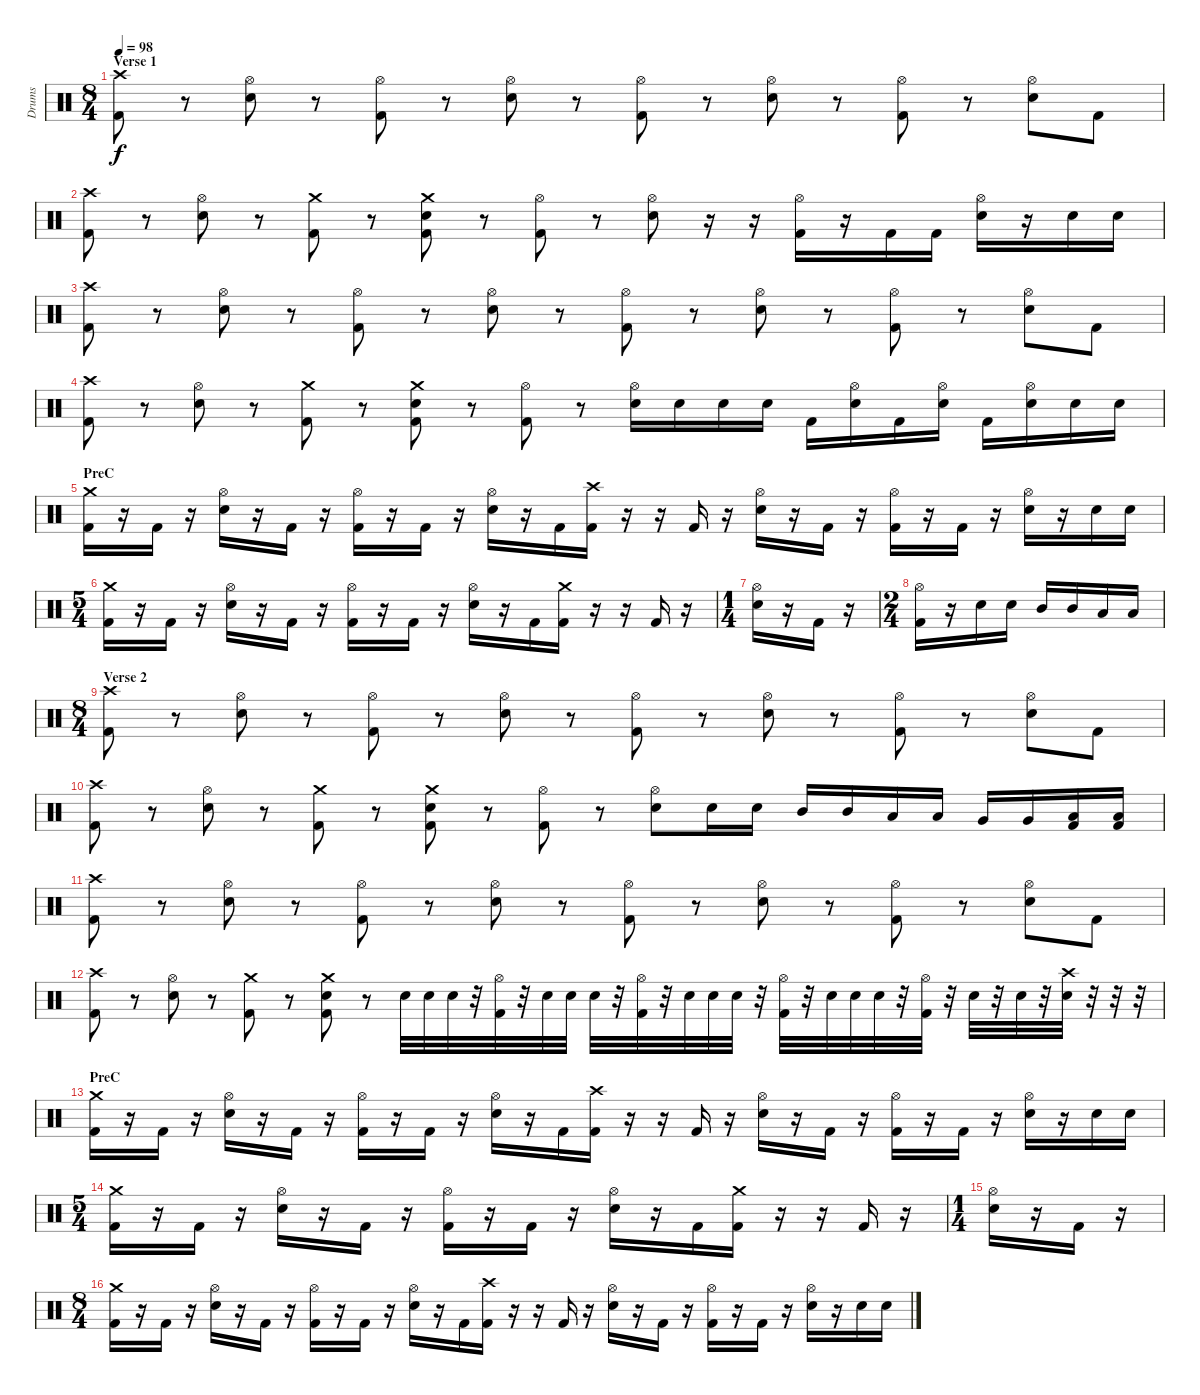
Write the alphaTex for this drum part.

\track ("Drums" "Drums") {instrument percussion}
\staff {score}
\articulation defaults
\ts (8 4)
\section ("" "Verse 1")
\tempo 98
\clef neutral
\ks c
("Crash high (hit)" "Kick (hit) 2").8{dy f} r.8 ("Hi-Hat (open)" "Electric Snare (hit)").8 r.8 ("Hi-Hat (open)" "Kick (hit) 2").8 r.8 ("Hi-Hat (open)" "Electric Snare (hit)").8 r.8 ("Hi-Hat (open)" "Kick (hit) 2").8 r.8 ("Hi-Hat (open)" "Electric Snare (hit)").8 r.8 ("Hi-Hat (open)" "Kick (hit) 2").8 r.8 ("Hi-Hat (open)" "Electric Snare (hit)").8 "Kick (hit) 2".8 |
("Crash high (hit)" "Kick (hit) 2").8 r.8 ("Hi-Hat (open)" "Electric Snare (hit)").8 r.8 ("Crash medium (hit)" "Kick (hit) 2").8 r.8 ("Crash medium (hit)" "Electric Snare (hit)" "Kick (hit) 2").8 r.8 ("Hi-Hat (open)" "Kick (hit) 2").8 r.8 ("Hi-Hat (open)" "Electric Snare (hit)").8 r.16 r.16 ("Hi-Hat (open)" "Kick (hit) 2").16 r.16 "Kick (hit) 2".16 "Kick (hit) 2".16 ("Hi-Hat (open)" "Electric Snare (hit)").16 r.16 "Electric Snare (hit)".16 "Electric Snare (hit)".16 |
("Crash high (hit)" "Kick (hit) 2").8 r.8 ("Hi-Hat (open)" "Electric Snare (hit)").8 r.8 ("Hi-Hat (open)" "Kick (hit) 2").8 r.8 ("Hi-Hat (open)" "Electric Snare (hit)").8 r.8 ("Hi-Hat (open)" "Kick (hit) 2").8 r.8 ("Hi-Hat (open)" "Electric Snare (hit)").8 r.8 ("Hi-Hat (open)" "Kick (hit) 2").8 r.8 ("Hi-Hat (open)" "Electric Snare (hit)").8 "Kick (hit) 2".8 |
("Crash high (hit)" "Kick (hit) 2").8 r.8 ("Hi-Hat (open)" "Electric Snare (hit)").8 r.8 ("Crash medium (hit)" "Kick (hit) 2").8 r.8 ("Crash medium (hit)" "Electric Snare (hit)" "Kick (hit) 2").8 r.8 ("Hi-Hat (open)" "Kick (hit) 2").8 r.8 ("Hi-Hat (open)" "Electric Snare (hit)").16 "Electric Snare (hit)".16 "Electric Snare (hit)".16 "Electric Snare (hit)".16 "Kick (hit) 2".16 ("Hi-Hat (open)" "Electric Snare (hit)").16 "Kick (hit) 2".16 ("Hi-Hat (open)" "Electric Snare (hit)").16 "Kick (hit) 2".16 ("Hi-Hat (open)" "Electric Snare (hit)").16 "Electric Snare (hit)".16 "Electric Snare (hit)".16 |
\section ("" "PreC")
("Crash medium (hit)" "Kick (hit) 2").16 r.16 "Kick (hit) 2".16 r.16 ("Hi-Hat (open)" "Electric Snare (hit)").16 r.16 "Kick (hit) 2".16 r.16 ("Hi-Hat (open)" "Kick (hit) 2").16 r.16 "Kick (hit) 2".16 r.16 ("Hi-Hat (open)" "Electric Snare (hit)").16 r.16 "Kick (hit) 2".16 ("Crash high (hit)" "Kick (hit) 2").16 r.16 r.16 "Kick (hit) 2".16 r.16 ("Hi-Hat (open)" "Electric Snare (hit)").16 r.16 "Kick (hit) 2".16 r.16 ("Hi-Hat (open)" "Kick (hit) 2").16 r.16 "Kick (hit) 2".16 r.16 ("Hi-Hat (open)" "Electric Snare (hit)").16 r.16 "Electric Snare (hit)".16 "Electric Snare (hit)".16 |
\ts (5 4)
("Crash medium (hit)" "Kick (hit) 2").16 r.16 "Kick (hit) 2".16 r.16 ("Hi-Hat (open)" "Electric Snare (hit)").16 r.16 "Kick (hit) 2".16 r.16 ("Hi-Hat (open)" "Kick (hit) 2").16 r.16 "Kick (hit) 2".16 r.16 ("Hi-Hat (open)" "Electric Snare (hit)").16 r.16 "Kick (hit) 2".16 ("Crash medium (hit)" "Kick (hit) 2").16 r.16 r.16 "Kick (hit) 2".16 r.16 |
\ts (1 4)
("Hi-Hat (open)" "Electric Snare (hit)").16 r.16 "Kick (hit) 2".16 r.16 |
\ts (2 4)
("Hi-Hat (open)" "Kick (hit) 2").16 r.16 "Electric Snare (hit)".16 "Electric Snare (hit)".16 "Mid Tom (hit)".16 "Mid Tom (hit)".16 "Low Tom (hit)".16 "Low Tom (hit)".16 |
\ts (8 4)
\section ("" "Verse 2")
("Crash high (hit)" "Kick (hit) 2").8 r.8 ("Hi-Hat (open)" "Electric Snare (hit)").8 r.8 ("Hi-Hat (open)" "Kick (hit) 2").8 r.8 ("Hi-Hat (open)" "Electric Snare (hit)").8 r.8 ("Hi-Hat (open)" "Kick (hit) 2").8 r.8 ("Hi-Hat (open)" "Electric Snare (hit)").8 r.8 ("Hi-Hat (open)" "Kick (hit) 2").8 r.8 ("Hi-Hat (open)" "Electric Snare (hit)").8 "Kick (hit) 2".8 |
("Crash high (hit)" "Kick (hit) 2").8 r.8 ("Hi-Hat (open)" "Electric Snare (hit)").8 r.8 ("Crash medium (hit)" "Kick (hit) 2").8 r.8 ("Crash medium (hit)" "Electric Snare (hit)" "Kick (hit) 2").8 r.8 ("Hi-Hat (open)" "Kick (hit) 2").8 r.8 ("Hi-Hat (open)" "Electric Snare (hit)").8 "Electric Snare (hit)".16 "Electric Snare (hit)".16 "Mid Tom (hit)".16 "Mid Tom (hit)".16 "Low Tom (hit)".16 "Low Tom (hit)".16 "Very Low Tom (hit)".16 "Very Low Tom (hit)".16 ("Low Floor Tom (hit)" "Kick (hit) 2").16 ("Low Floor Tom (hit)" "Kick (hit) 2").16 |
("Crash high (hit)" "Kick (hit) 2").8 r.8 ("Hi-Hat (open)" "Electric Snare (hit)").8 r.8 ("Hi-Hat (open)" "Kick (hit) 2").8 r.8 ("Hi-Hat (open)" "Electric Snare (hit)").8 r.8 ("Hi-Hat (open)" "Kick (hit) 2").8 r.8 ("Hi-Hat (open)" "Electric Snare (hit)").8 r.8 ("Hi-Hat (open)" "Kick (hit) 2").8 r.8 ("Hi-Hat (open)" "Electric Snare (hit)").8 "Kick (hit) 2".8 |
("Crash high (hit)" "Kick (hit) 2").8 r.8 ("Hi-Hat (open)" "Electric Snare (hit)").8 r.8 ("Crash medium (hit)" "Kick (hit) 2").8 r.8 ("Crash medium (hit)" "Electric Snare (hit)" "Kick (hit) 2").8 r.8 "Electric Snare (hit)".32 "Electric Snare (hit)".32 "Electric Snare (hit)".32 r.32 ("Hi-Hat (open)" "Kick (hit) 2").32 r.32 "Electric Snare (hit)".32 "Electric Snare (hit)".32 "Electric Snare (hit)".32 r.32 ("Hi-Hat (open)" "Kick (hit) 2").32 r.32 "Electric Snare (hit)".32 "Electric Snare (hit)".32 "Electric Snare (hit)".32 r.32 ("Hi-Hat (open)" "Kick (hit) 2").32 r.32 "Electric Snare (hit)".32 "Electric Snare (hit)".32 "Electric Snare (hit)".32 r.32 ("Hi-Hat (open)" "Kick (hit) 2").32 r.32 "Electric Snare (hit)".32 r.32 "Electric Snare (hit)".32 r.32 ("Crash high (hit)" "Electric Snare (hit)").32 r.32 r.32 r.32 |
\section ("" "PreC")
("Crash medium (hit)" "Kick (hit) 2").16 r.16 "Kick (hit) 2".16 r.16 ("Hi-Hat (open)" "Electric Snare (hit)").16 r.16 "Kick (hit) 2".16 r.16 ("Hi-Hat (open)" "Kick (hit) 2").16 r.16 "Kick (hit) 2".16 r.16 ("Hi-Hat (open)" "Electric Snare (hit)").16 r.16 "Kick (hit) 2".16 ("Crash high (hit)" "Kick (hit) 2").16 r.16 r.16 "Kick (hit) 2".16 r.16 ("Hi-Hat (open)" "Electric Snare (hit)").16 r.16 "Kick (hit) 2".16 r.16 ("Hi-Hat (open)" "Kick (hit) 2").16 r.16 "Kick (hit) 2".16 r.16 ("Hi-Hat (open)" "Electric Snare (hit)").16 r.16 "Electric Snare (hit)".16 "Electric Snare (hit)".16 |
\ts (5 4)
("Crash medium (hit)" "Kick (hit) 2").16 r.16 "Kick (hit) 2".16 r.16 ("Hi-Hat (open)" "Electric Snare (hit)").16 r.16 "Kick (hit) 2".16 r.16 ("Hi-Hat (open)" "Kick (hit) 2").16 r.16 "Kick (hit) 2".16 r.16 ("Hi-Hat (open)" "Electric Snare (hit)").16 r.16 "Kick (hit) 2".16 ("Crash medium (hit)" "Kick (hit) 2").16 r.16 r.16 "Kick (hit) 2".16 r.16 |
\ts (1 4)
("Hi-Hat (open)" "Electric Snare (hit)").16 r.16 "Kick (hit) 2".16 r.16 |
\ts (8 4)
("Crash medium (hit)" "Kick (hit) 2").16 r.16 "Kick (hit) 2".16 r.16 ("Hi-Hat (open)" "Electric Snare (hit)").16 r.16 "Kick (hit) 2".16 r.16 ("Hi-Hat (open)" "Kick (hit) 2").16 r.16 "Kick (hit) 2".16 r.16 ("Hi-Hat (open)" "Electric Snare (hit)").16 r.16 "Kick (hit) 2".16 ("Crash high (hit)" "Kick (hit) 2").16 r.16 r.16 "Kick (hit) 2".16 r.16 ("Hi-Hat (open)" "Electric Snare (hit)").16 r.16 "Kick (hit) 2".16 r.16 ("Hi-Hat (open)" "Kick (hit) 2").16 r.16 "Kick (hit) 2".16 r.16 ("Hi-Hat (open)" "Electric Snare (hit)").16 r.16 "Electric Snare (hit)".16 "Electric Snare (hit)".16
